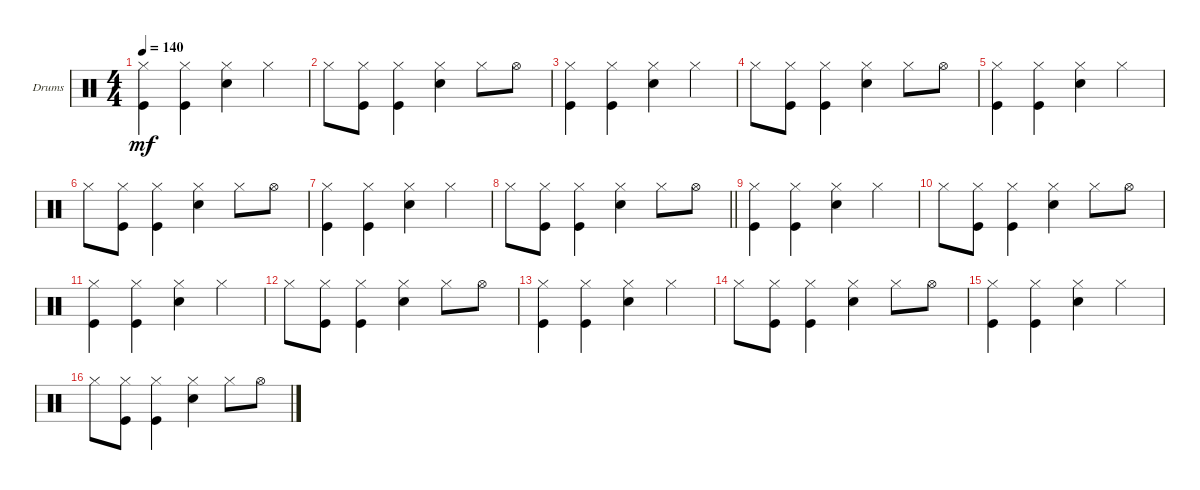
\defaultSystemsLayout 4
\bracketExtendMode groupsimilarinstruments
\firstSystemTrackNameOrientation horizontal
\otherSystemsTrackNameOrientation horizontal
\track ("Drumkit" "Drums") {instrument percussion}
\staff {score}
\articulation defaults
\ts (4 4)
\tempo 140
\clef neutral
\ks c
("Hi-Hat (closed)" "Kick (hit)").4{dy mf} ("Hi-Hat (closed)" "Kick (hit)").4 ("Hi-Hat (closed)" "Snare (hit) 2").4 "Hi-Hat (closed)".4 |
"Hi-Hat (closed)".8 ("Hi-Hat (closed)" "Kick (hit)").8 ("Hi-Hat (closed)" "Kick (hit)").4 ("Snare (hit) 2" "Hi-Hat (closed)").4 "Hi-Hat (closed)".8 "Hi-Hat (open)".8 |
("Hi-Hat (closed)" "Kick (hit)").4 ("Hi-Hat (closed)" "Kick (hit)").4 ("Hi-Hat (closed)" "Snare (hit) 2").4 "Hi-Hat (closed)".4 |
"Hi-Hat (closed)".8 ("Hi-Hat (closed)" "Kick (hit)").8 ("Hi-Hat (closed)" "Kick (hit)").4 ("Snare (hit) 2" "Hi-Hat (closed)").4 "Hi-Hat (closed)".8 "Hi-Hat (open)".8 |
("Hi-Hat (closed)" "Kick (hit)").4 ("Hi-Hat (closed)" "Kick (hit)").4 ("Hi-Hat (closed)" "Snare (hit) 2").4 "Hi-Hat (closed)".4 |
"Hi-Hat (closed)".8 ("Hi-Hat (closed)" "Kick (hit)").8 ("Hi-Hat (closed)" "Kick (hit)").4 ("Snare (hit) 2" "Hi-Hat (closed)").4 "Hi-Hat (closed)".8 "Hi-Hat (open)".8 |
("Hi-Hat (closed)" "Kick (hit)").4 ("Hi-Hat (closed)" "Kick (hit)").4 ("Hi-Hat (closed)" "Snare (hit) 2").4 "Hi-Hat (closed)".4 |
\barLineRight lightlight "Hi-Hat (closed)".8
("Hi-Hat (closed)" "Kick (hit)").8 ("Hi-Hat (closed)" "Kick (hit)").4 ("Snare (hit) 2" "Hi-Hat (closed)").4 "Hi-Hat (closed)".8 "Hi-Hat (open)".8 |
("Hi-Hat (closed)" "Kick (hit)").4 ("Hi-Hat (closed)" "Kick (hit)").4 ("Hi-Hat (closed)" "Snare (hit) 2").4 "Hi-Hat (closed)".4 |
"Hi-Hat (closed)".8 ("Hi-Hat (closed)" "Kick (hit)").8 ("Hi-Hat (closed)" "Kick (hit)").4 ("Snare (hit) 2" "Hi-Hat (closed)").4 "Hi-Hat (closed)".8 "Hi-Hat (open)".8 |
("Hi-Hat (closed)" "Kick (hit)").4 ("Hi-Hat (closed)" "Kick (hit)").4 ("Hi-Hat (closed)" "Snare (hit) 2").4 "Hi-Hat (closed)".4 |
"Hi-Hat (closed)".8 ("Hi-Hat (closed)" "Kick (hit)").8 ("Hi-Hat (closed)" "Kick (hit)").4 ("Snare (hit) 2" "Hi-Hat (closed)").4 "Hi-Hat (closed)".8 "Hi-Hat (open)".8 |
("Hi-Hat (closed)" "Kick (hit)").4 ("Hi-Hat (closed)" "Kick (hit)").4 ("Hi-Hat (closed)" "Snare (hit) 2").4 "Hi-Hat (closed)".4 |
"Hi-Hat (closed)".8 ("Hi-Hat (closed)" "Kick (hit)").8 ("Hi-Hat (closed)" "Kick (hit)").4 ("Snare (hit) 2" "Hi-Hat (closed)").4 "Hi-Hat (closed)".8 "Hi-Hat (open)".8 |
("Hi-Hat (closed)" "Kick (hit)").4 ("Hi-Hat (closed)" "Kick (hit)").4 ("Hi-Hat (closed)" "Snare (hit) 2").4 "Hi-Hat (closed)".4 |
"Hi-Hat (closed)".8 ("Hi-Hat (closed)" "Kick (hit)").8 ("Hi-Hat (closed)" "Kick (hit)").4 ("Snare (hit) 2" "Hi-Hat (closed)").4 "Hi-Hat (closed)".8 "Hi-Hat (open)".8
